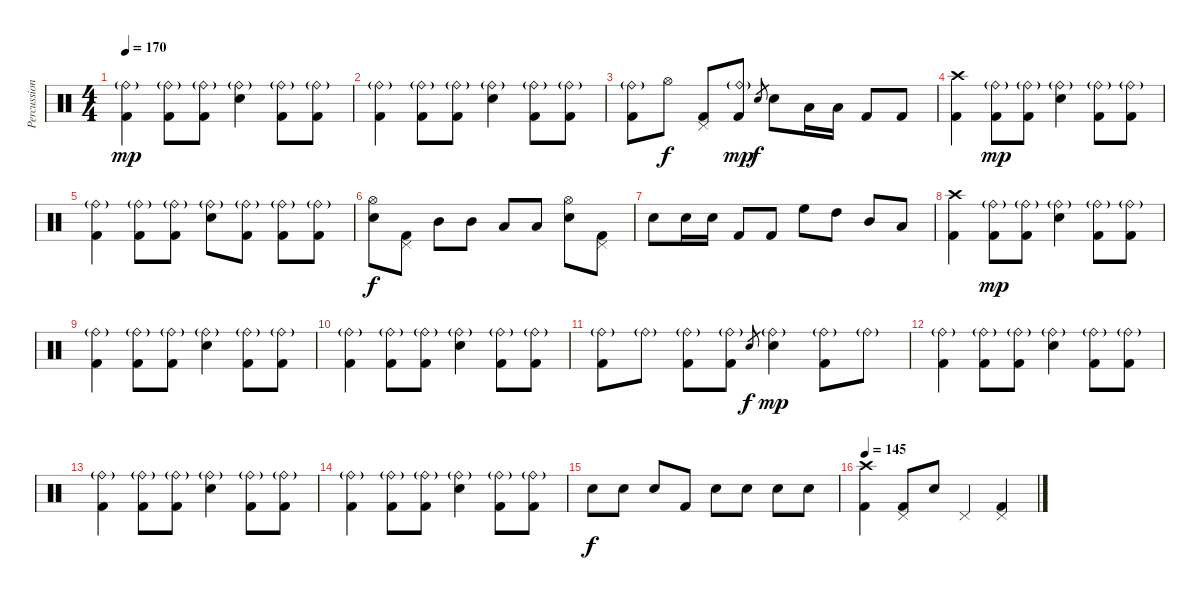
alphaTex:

\track ("Percussion" "Percussion") {instrument percussion}
\staff {score}
\articulation defaults
\ts (4 4)
\tempo 170
\clef neutral
\ks c
("Ride (bell)"{g} "Kick (hit) 2").4{dy mp} ("Ride (bell)"{g} "Kick (hit) 2").8 ("Ride (bell)"{g} "Kick (hit) 2").8 ("Ride (bell)"{g} "Electric Snare (hit)").4 ("Ride (bell)"{g} "Kick (hit) 2").8 ("Ride (bell)"{g} "Kick (hit) 2").8 |
("Ride (bell)"{g} "Kick (hit) 2").4 ("Ride (bell)"{g} "Kick (hit) 2").8 ("Ride (bell)"{g} "Kick (hit) 2").8 ("Ride (bell)"{g} "Electric Snare (hit)").4 ("Ride (bell)"{g} "Kick (hit) 2").8 ("Ride (bell)"{g} "Kick (hit) 2").8 |
("Ride (bell)"{g} "Kick (hit) 2").8 "Hi-Hat (open)".8{dy f} ("Pedal Hi-Hat (hit)" "Kick (hit) 2").8 ("Ride (bell)"{g} "Kick (hit) 2").8{dy mp} "Electric Snare (hit)".8{gr dy f} "Electric Snare (hit)".8 "Low Tom (hit)".16 "Low Tom (hit)".16 "Kick (hit) 2".8 "Kick (hit) 2".8 |
("Crash high (hit)" "Kick (hit) 2").4 ("Ride (bell)"{g} "Kick (hit) 2").8{dy mp} ("Ride (bell)"{g} "Kick (hit) 2").8 ("Ride (bell)"{g} "Electric Snare (hit)").4 ("Ride (bell)"{g} "Kick (hit) 2").8 ("Ride (bell)"{g} "Kick (hit) 2").8 |
("Ride (bell)"{g} "Kick (hit) 2").4 ("Ride (bell)"{g} "Kick (hit) 2").8 ("Ride (bell)"{g} "Kick (hit) 2").8 ("Ride (bell)"{g} "Electric Snare (hit)").8 ("Ride (bell)"{g} "Kick (hit) 2").8 ("Ride (bell)"{g} "Kick (hit) 2").8 ("Ride (bell)"{g} "Kick (hit) 2").8 |
("Hi-Hat (open)" "Electric Snare (hit)").8{dy f} ("Pedal Hi-Hat (hit)" "Kick (hit) 2").8 "Mid Tom (hit)".8 "Mid Tom (hit)".8 "Low Tom (hit)".8 "Low Tom (hit)".8 ("Hi-Hat (open)" "Electric Snare (hit)").8 ("Pedal Hi-Hat (hit)" "Kick (hit) 2").8 |
"Electric Snare (hit)".8 "Electric Snare (hit)".16 "Electric Snare (hit)".16 "Kick (hit) 2".8 "Kick (hit) 2".8 "High Floor Tom (hit)".8 "High Tom (hit)".8 "Mid Tom (hit)".8 "Low Tom (hit)".8 |
("Crash high (hit)" "Kick (hit) 2").4 ("Ride (bell)"{g} "Kick (hit) 2").8{dy mp} ("Ride (bell)"{g} "Kick (hit) 2").8 ("Ride (bell)"{g} "Electric Snare (hit)").4 ("Ride (bell)"{g} "Kick (hit) 2").8 ("Ride (bell)"{g} "Kick (hit) 2").8 |
("Ride (bell)"{g} "Kick (hit) 2").4 ("Ride (bell)"{g} "Kick (hit) 2").8 ("Ride (bell)"{g} "Kick (hit) 2").8 ("Ride (bell)"{g} "Electric Snare (hit)").4 ("Ride (bell)"{g} "Kick (hit) 2").8 ("Ride (bell)"{g} "Kick (hit) 2").8 |
("Ride (bell)"{g} "Kick (hit) 2").4 ("Ride (bell)"{g} "Kick (hit) 2").8 ("Ride (bell)"{g} "Kick (hit) 2").8 ("Ride (bell)"{g} "Electric Snare (hit)").4 ("Ride (bell)"{g} "Kick (hit) 2").8 ("Ride (bell)"{g} "Kick (hit) 2").8 |
("Ride (bell)"{g} "Kick (hit) 2").8 "Ride (bell)"{g}.8 ("Ride (bell)"{g} "Kick (hit) 2").8 ("Ride (bell)"{g} "Kick (hit) 2").8 "Electric Snare (hit)".8{gr dy f} ("Ride (bell)"{g} "Electric Snare (hit)").4{dy mp} ("Ride (bell)"{g} "Kick (hit) 2").8 "Ride (bell)"{g}.8 |
("Ride (bell)"{g} "Kick (hit) 2").4 ("Ride (bell)"{g} "Kick (hit) 2").8 ("Ride (bell)"{g} "Kick (hit) 2").8 ("Ride (bell)"{g} "Electric Snare (hit)").4 ("Ride (bell)"{g} "Kick (hit) 2").8 ("Ride (bell)"{g} "Kick (hit) 2").8 |
("Ride (bell)"{g} "Kick (hit) 2").4 ("Ride (bell)"{g} "Kick (hit) 2").8 ("Ride (bell)"{g} "Kick (hit) 2").8 ("Ride (bell)"{g} "Electric Snare (hit)").4 ("Ride (bell)"{g} "Kick (hit) 2").8 ("Ride (bell)"{g} "Kick (hit) 2").8 |
("Ride (bell)"{g} "Kick (hit) 2").4 ("Ride (bell)"{g} "Kick (hit) 2").8 ("Ride (bell)"{g} "Kick (hit) 2").8 ("Ride (bell)"{g} "Electric Snare (hit)").4 ("Ride (bell)"{g} "Kick (hit) 2").8 ("Ride (bell)"{g} "Kick (hit) 2").8 |
"Electric Snare (hit)".8{dy f} "Electric Snare (hit)".8 "Electric Snare (hit)".8 "Kick (hit) 2".8 "Electric Snare (hit)".8 "Electric Snare (hit)".8 "Electric Snare (hit)".8 "Electric Snare (hit)".8 |
\tempo 145
("Crash high (hit)" "Kick (hit) 2").4 ("Pedal Hi-Hat (hit)" "Kick (hit) 2").8 "Electric Snare (hit)".8 "Pedal Hi-Hat (hit)".4 ("Pedal Hi-Hat (hit)" "Kick (hit) 2").4
